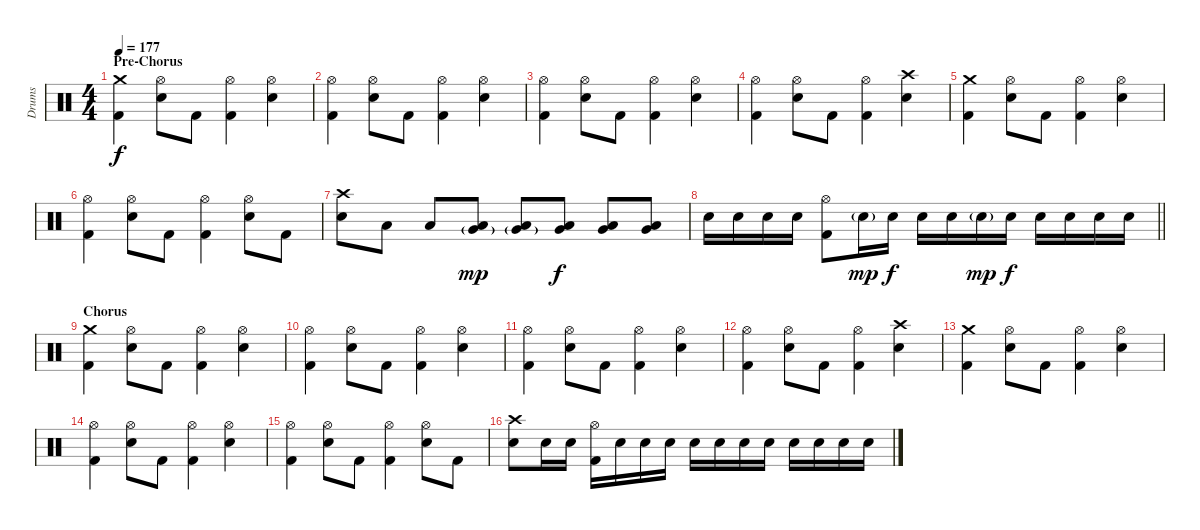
\track ("Drums" "Drums") {instrument percussion}
\staff {score}
\articulation defaults
\ts (4 4)
\section ("" "Pre-Chorus")
\tempo 177
\clef neutral
\ks c
("Crash medium (hit)" "Kick (hit) 2").4{dy f} ("Hi-Hat (open)" "Electric Snare (hit)").8 "Kick (hit) 2".8 ("Hi-Hat (open)" "Kick (hit) 2").4 ("Hi-Hat (open)" "Electric Snare (hit)").4 |
("Hi-Hat (open)" "Kick (hit) 2").4 ("Hi-Hat (open)" "Electric Snare (hit)").8 "Kick (hit) 2".8 ("Hi-Hat (open)" "Kick (hit) 2").4 ("Hi-Hat (open)" "Electric Snare (hit)").4 |
("Hi-Hat (open)" "Kick (hit) 2").4 ("Hi-Hat (open)" "Electric Snare (hit)").8 "Kick (hit) 2".8 ("Hi-Hat (open)" "Kick (hit) 2").4 ("Hi-Hat (open)" "Electric Snare (hit)").4 |
("Hi-Hat (open)" "Kick (hit) 2").4 ("Hi-Hat (open)" "Electric Snare (hit)").8 "Kick (hit) 2".8 ("Hi-Hat (open)" "Kick (hit) 2").4 ("Crash high (hit)" "Electric Snare (hit)").4 |
("Crash medium (hit)" "Kick (hit) 2").4 ("Hi-Hat (open)" "Electric Snare (hit)").8 "Kick (hit) 2".8 ("Hi-Hat (open)" "Kick (hit) 2").4 ("Hi-Hat (open)" "Electric Snare (hit)").4 |
("Hi-Hat (open)" "Kick (hit) 2").4 ("Hi-Hat (open)" "Electric Snare (hit)").8 "Kick (hit) 2".8 ("Hi-Hat (open)" "Kick (hit) 2").4 ("Hi-Hat (open)" "Electric Snare (hit)").8 "Kick (hit) 2".8 |
("Crash high (hit)" "Electric Snare (hit)").8 "Low Floor Tom (hit)".8 "Low Floor Tom (hit)".8 ("Very Low Tom (hit)"{g} "Low Floor Tom (hit)").8{dy mp} ("Very Low Tom (hit)"{g} "Low Floor Tom (hit)").8 ("Very Low Tom (hit)" "Low Floor Tom (hit)").8{dy f} ("Very Low Tom (hit)" "Low Tom (hit)").8 ("Very Low Tom (hit)" "Low Tom (hit)").8 |
\barLineRight lightlight "Electric Snare (hit)".16 "Electric Snare (hit)".16 "Electric Snare (hit)".16 "Electric Snare (hit)".16
("Hi-Hat (open)" "Kick (hit) 2").8 "Electric Snare (hit)"{g}.16{dy mp} "Electric Snare (hit)".16{dy f} "Electric Snare (hit)".16 "Electric Snare (hit)".16 "Electric Snare (hit)"{g}.16{dy mp} "Electric Snare (hit)".16{dy f} "Electric Snare (hit)".16 "Electric Snare (hit)".16 "Electric Snare (hit)".16 "Electric Snare (hit)".16 |
\section ("" "Chorus")
("Crash medium (hit)" "Kick (hit) 2").4 ("Hi-Hat (open)" "Electric Snare (hit)").8 "Kick (hit) 2".8 ("Hi-Hat (open)" "Kick (hit) 2").4 ("Hi-Hat (open)" "Electric Snare (hit)").4 |
("Hi-Hat (open)" "Kick (hit) 2").4 ("Hi-Hat (open)" "Electric Snare (hit)").8 "Kick (hit) 2".8 ("Hi-Hat (open)" "Kick (hit) 2").4 ("Hi-Hat (open)" "Electric Snare (hit)").4 |
("Hi-Hat (open)" "Kick (hit) 2").4 ("Hi-Hat (open)" "Electric Snare (hit)").8 "Kick (hit) 2".8 ("Hi-Hat (open)" "Kick (hit) 2").4 ("Hi-Hat (open)" "Electric Snare (hit)").4 |
("Hi-Hat (open)" "Kick (hit) 2").4 ("Hi-Hat (open)" "Electric Snare (hit)").8 "Kick (hit) 2".8 ("Hi-Hat (open)" "Kick (hit) 2").4 ("Crash high (hit)" "Electric Snare (hit)").4 |
("Crash medium (hit)" "Kick (hit) 2").4 ("Hi-Hat (open)" "Electric Snare (hit)").8 "Kick (hit) 2".8 ("Hi-Hat (open)" "Kick (hit) 2").4 ("Hi-Hat (open)" "Electric Snare (hit)").4 |
("Hi-Hat (open)" "Kick (hit) 2").4 ("Hi-Hat (open)" "Electric Snare (hit)").8 "Kick (hit) 2".8 ("Hi-Hat (open)" "Kick (hit) 2").4 ("Hi-Hat (open)" "Electric Snare (hit)").4 |
("Hi-Hat (open)" "Kick (hit) 2").4 ("Hi-Hat (open)" "Electric Snare (hit)").8 "Kick (hit) 2".8 ("Hi-Hat (open)" "Kick (hit) 2").4 ("Hi-Hat (open)" "Electric Snare (hit)").8 "Kick (hit) 2".8 |
("Crash high (hit)" "Electric Snare (hit)").8 "Electric Snare (hit)".16 "Electric Snare (hit)".16 ("Hi-Hat (open)" "Kick (hit) 2").16 "Electric Snare (hit)".16 "Electric Snare (hit)".16 "Electric Snare (hit)".16 "Electric Snare (hit)".16 "Electric Snare (hit)".16 "Electric Snare (hit)".16 "Electric Snare (hit)".16 "Electric Snare (hit)".16 "Electric Snare (hit)".16 "Electric Snare (hit)".16 "Electric Snare (hit)".16
